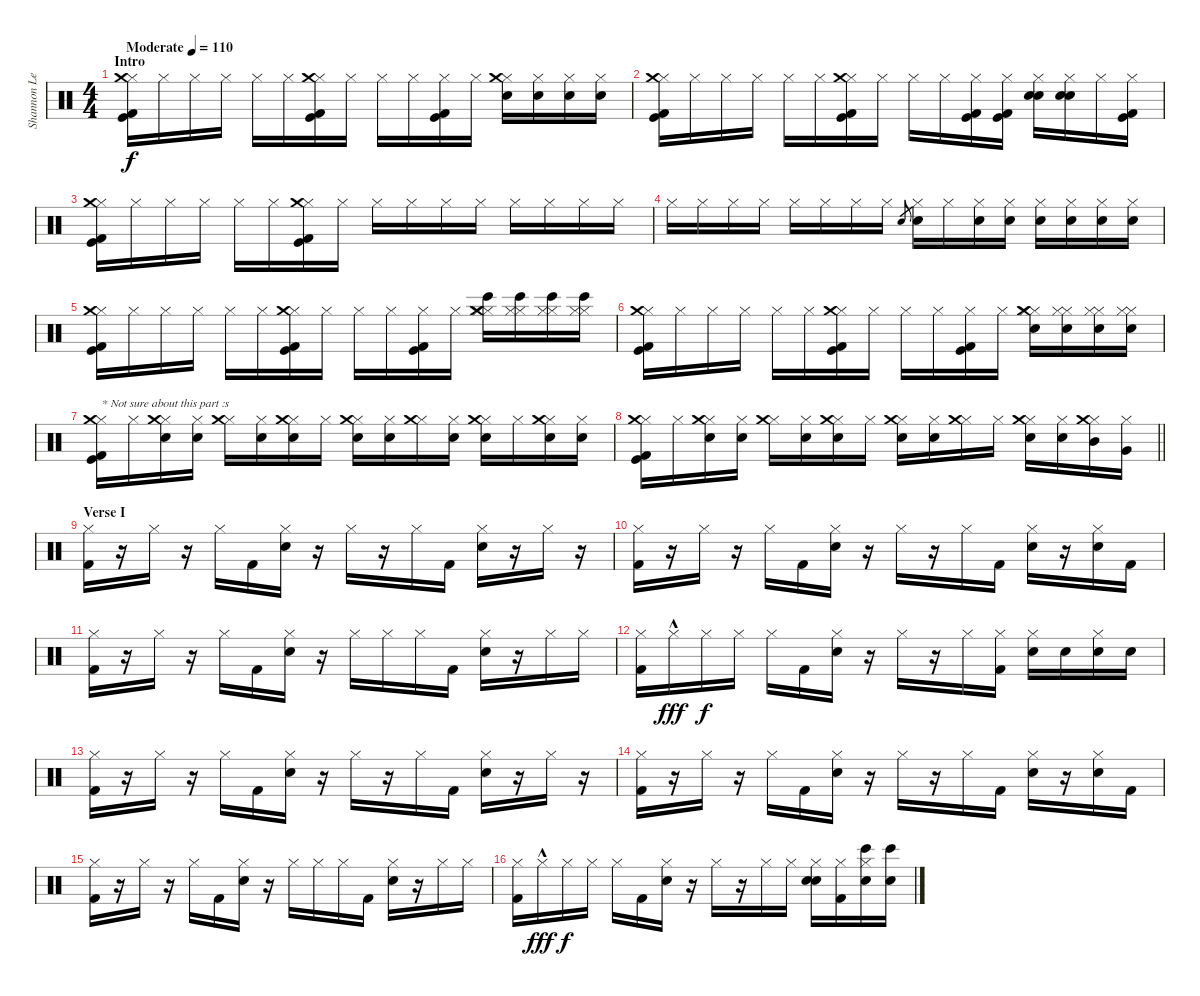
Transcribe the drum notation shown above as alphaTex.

\track ("Shannon Leto [Drums]" "Shannon Le") {instrument percussion}
\staff {score}
\articulation defaults
\ts (4 4)
\section ("" "Intro")
\tempo (110 "Moderate")
\clef neutral
\ks c
("Hi-Hat (closed)" "Crash medium (hit)" "Kick (hit)" "Kick (hit) 2").16{dy f} "Hi-Hat (closed)".16 "Hi-Hat (closed)".16 "Hi-Hat (closed)".16 "Hi-Hat (closed)".16 "Hi-Hat (closed)".16 ("Hi-Hat (closed)" "Crash medium (hit)" "Kick (hit)" "Kick (hit) 2").16 "Hi-Hat (closed)".16 "Hi-Hat (closed)".16 "Hi-Hat (closed)".16 ("Hi-Hat (closed)" "Kick (hit)" "Kick (hit) 2").16 "Hi-Hat (closed)".16 ("Hi-Hat (closed)" "Crash medium (hit)" "Hand Clap (hit)").16 ("Hi-Hat (closed)" "Hand Clap (hit)").16 ("Hi-Hat (closed)" "Hand Clap (hit)").16 ("Hi-Hat (closed)" "Hand Clap (hit)").16 |
("Hi-Hat (closed)" "Crash medium (hit)" "Kick (hit)" "Kick (hit) 2").16 "Hi-Hat (closed)".16 "Hi-Hat (closed)".16 "Hi-Hat (closed)".16 "Hi-Hat (closed)".16 "Hi-Hat (closed)".16 ("Hi-Hat (closed)" "Crash medium (hit)" "Kick (hit)" "Kick (hit) 2").16 "Hi-Hat (closed)".16 "Hi-Hat (closed)".16 "Hi-Hat (closed)".16 ("Hi-Hat (closed)" "Kick (hit)" "Kick (hit) 2").16 ("Hi-Hat (closed)" "Kick (hit)" "Kick (hit) 2").16 ("Hi-Hat (closed)" "Hand Clap (hit)" "Electric Snare (hit)").16 ("Hi-Hat (closed)" "Hand Clap (hit)" "Electric Snare (hit)").16 "Hi-Hat (closed)".16 ("Hi-Hat (closed)" "Kick (hit)" "Kick (hit) 2").16 |
("Hi-Hat (closed)" "Crash medium (hit)" "Kick (hit)" "Kick (hit) 2").16 "Hi-Hat (closed)".16 "Hi-Hat (closed)".16 "Hi-Hat (closed)".16 "Hi-Hat (closed)".16 "Hi-Hat (closed)".16 ("Hi-Hat (closed)" "Crash medium (hit)" "Kick (hit)" "Kick (hit) 2").16 "Hi-Hat (closed)".16 "Hi-Hat (closed)".16 "Hi-Hat (closed)".16 "Hi-Hat (closed)".16 "Hi-Hat (closed)".16 "Hi-Hat (closed)".16 "Hi-Hat (closed)".16 "Hi-Hat (closed)".16 "Hi-Hat (closed)".16 |
"Hi-Hat (closed)".16 "Hi-Hat (closed)".16 "Hi-Hat (closed)".16 "Hi-Hat (closed)".16 "Hi-Hat (closed)".16 "Hi-Hat (closed)".16 "Hi-Hat (closed)".16 "Hi-Hat (closed)".16 "Electric Snare (hit)".8{gr} ("Hi-Hat (closed)" "Electric Snare (hit)").16 "Hi-Hat (closed)".16 ("Hi-Hat (closed)" "Electric Snare (hit)").16 ("Hi-Hat (closed)" "Electric Snare (hit)").16 ("Hi-Hat (closed)" "Electric Snare (hit)").16 ("Hi-Hat (closed)" "Electric Snare (hit)").16 ("Hi-Hat (closed)" "Electric Snare (hit)").16 ("Hi-Hat (closed)" "Electric Snare (hit)").16 |
("Hi-Hat (closed)" "Crash medium (hit)" "Kick (hit)" "Kick (hit) 2").16 "Hi-Hat (closed)".16 "Hi-Hat (closed)".16 "Hi-Hat (closed)".16 "Hi-Hat (closed)".16 "Hi-Hat (closed)".16 ("Hi-Hat (closed)" "Crash medium (hit)" "Kick (hit)" "Kick (hit) 2").16 "Hi-Hat (closed)".16 "Hi-Hat (closed)".16 "Hi-Hat (closed)".16 ("Hi-Hat (closed)" "Kick (hit)" "Kick (hit) 2").16 "Hi-Hat (closed)".16 ("Hi-Hat (closed)" "Crash medium (hit)" "Bongo High (hit)" "Hi-Hat (closed)").16 ("Hi-Hat (closed)" "Bongo High (hit)" "Hi-Hat (closed)").16 ("Hi-Hat (closed)" "Bongo High (hit)" "Hi-Hat (closed)").16 ("Hi-Hat (closed)" "Bongo High (hit)" "Hi-Hat (closed)").16 |
("Hi-Hat (closed)" "Crash medium (hit)" "Kick (hit)" "Kick (hit) 2").16 "Hi-Hat (closed)".16 "Hi-Hat (closed)".16 "Hi-Hat (closed)".16 "Hi-Hat (closed)".16 "Hi-Hat (closed)".16 ("Hi-Hat (closed)" "Crash medium (hit)" "Kick (hit)" "Kick (hit) 2").16 "Hi-Hat (closed)".16 "Hi-Hat (closed)".16 "Hi-Hat (closed)".16 ("Hi-Hat (closed)" "Kick (hit)" "Kick (hit) 2").16 "Hi-Hat (closed)".16 ("Hi-Hat (closed)" "Crash medium (hit)" "Hand Clap (hit)" "Hi-Hat (closed)").16 ("Hi-Hat (closed)" "Hand Clap (hit)" "Hi-Hat (closed)").16 ("Hi-Hat (closed)" "Hand Clap (hit)" "Hi-Hat (closed)").16 ("Hi-Hat (closed)" "Hand Clap (hit)" "Hi-Hat (closed)").16 |
("Hi-Hat (closed)" "Crash medium (hit)" "Kick (hit)" "Kick (hit) 2").16{txt "* Not sure about this part :s"} "Hi-Hat (closed)".16 ("Hi-Hat (closed)" "Crash medium (hit)" "Electric Snare (hit)").16 ("Hi-Hat (closed)" "Electric Snare (hit)").16 ("Hi-Hat (closed)" "Crash medium (hit)").16 ("Hi-Hat (closed)" "Electric Snare (hit)").16 ("Hi-Hat (closed)" "Crash medium (hit)" "Electric Snare (hit)").16 "Hi-Hat (closed)".16 ("Hi-Hat (closed)" "Crash medium (hit)" "Electric Snare (hit)").16 ("Hi-Hat (closed)" "Electric Snare (hit)").16 ("Hi-Hat (closed)" "Crash medium (hit)").16 ("Hi-Hat (closed)" "Electric Snare (hit)").16 ("Hi-Hat (closed)" "Crash medium (hit)" "Electric Snare (hit)").16 "Hi-Hat (closed)".16 ("Hi-Hat (closed)" "Crash medium (hit)" "Electric Snare (hit)").16 ("Hi-Hat (closed)" "Electric Snare (hit)").16 |
\barLineRight lightlight
("Hi-Hat (closed)" "Crash medium (hit)" "Kick (hit)" "Kick (hit) 2").16 "Hi-Hat (closed)".16 ("Hi-Hat (closed)" "Crash medium (hit)" "Electric Snare (hit)").16 ("Hi-Hat (closed)" "Electric Snare (hit)").16 ("Hi-Hat (closed)" "Crash medium (hit)").16 ("Hi-Hat (closed)" "Electric Snare (hit)").16 ("Hi-Hat (closed)" "Crash medium (hit)" "Electric Snare (hit)").16 "Hi-Hat (closed)".16 ("Hi-Hat (closed)" "Crash medium (hit)" "Electric Snare (hit)").16 ("Hi-Hat (closed)" "Electric Snare (hit)").16 ("Hi-Hat (closed)" "Crash medium (hit)").16 "Hi-Hat (closed)".16 ("Hi-Hat (closed)" "Crash medium (hit)" "Electric Snare (hit)").16 ("Hi-Hat (closed)" "Electric Snare (hit)").16 ("Hi-Hat (closed)" "Crash medium (hit)" "Mid Tom (hit)").16 ("Hi-Hat (closed)" "Very Low Tom (hit)").16 |
\section ("" "Verse I")
("Hi-Hat (closed)" "Kick (hit) 2").16 r.16 "Hi-Hat (closed)".16 r.16 "Hi-Hat (closed)".16 "Kick (hit) 2".16 ("Hi-Hat (closed)" "Electric Snare (hit)").16 r.16 "Hi-Hat (closed)".16 r.16 "Hi-Hat (closed)".16 "Kick (hit) 2".16 ("Hi-Hat (closed)" "Electric Snare (hit)").16 r.16 "Hi-Hat (closed)".16 r.16 |
("Hi-Hat (closed)" "Kick (hit) 2").16 r.16 "Hi-Hat (closed)".16 r.16 "Hi-Hat (closed)".16 "Kick (hit) 2".16 ("Hi-Hat (closed)" "Electric Snare (hit)").16 r.16 "Hi-Hat (closed)".16 r.16 "Hi-Hat (closed)".16 "Kick (hit) 2".16 ("Hi-Hat (closed)" "Electric Snare (hit)").16 r.16 ("Hi-Hat (closed)" "Electric Snare (hit)").16 "Kick (hit) 2".16 |
("Hi-Hat (closed)" "Kick (hit) 2").16 r.16 "Hi-Hat (closed)".16 r.16 "Hi-Hat (closed)".16 "Kick (hit) 2".16 ("Hi-Hat (closed)" "Electric Snare (hit)").16 r.16 "Hi-Hat (closed)".16 "Hi-Hat (closed)".16 "Hi-Hat (closed)".16 "Kick (hit) 2".16 ("Hi-Hat (closed)" "Electric Snare (hit)").16 r.16 "Hi-Hat (closed)".16 "Hi-Hat (closed)".16 |
("Hi-Hat (closed)" "Kick (hit) 2").16 "Hi-Hat (closed)"{hac}.16{dy fff} "Hi-Hat (closed)".16{dy f} "Hi-Hat (closed)".16 "Hi-Hat (closed)".16 "Kick (hit) 2".16 ("Hi-Hat (closed)" "Electric Snare (hit)").16 r.16 "Hi-Hat (closed)".16 r.16 "Hi-Hat (closed)".16 ("Hi-Hat (closed)" "Kick (hit) 2").16 ("Hi-Hat (closed)" "Electric Snare (hit)").16 "Electric Snare (hit)".16 ("Hi-Hat (closed)" "Electric Snare (hit)").16 "Electric Snare (hit)".16 |
("Hi-Hat (closed)" "Kick (hit) 2").16 r.16 "Hi-Hat (closed)".16 r.16 "Hi-Hat (closed)".16 "Kick (hit) 2".16 ("Hi-Hat (closed)" "Electric Snare (hit)").16 r.16 "Hi-Hat (closed)".16 r.16 "Hi-Hat (closed)".16 "Kick (hit) 2".16 ("Hi-Hat (closed)" "Electric Snare (hit)").16 r.16 "Hi-Hat (closed)".16 r.16 |
("Hi-Hat (closed)" "Kick (hit) 2").16 r.16 "Hi-Hat (closed)".16 r.16 "Hi-Hat (closed)".16 "Kick (hit) 2".16 ("Hi-Hat (closed)" "Electric Snare (hit)").16 r.16 "Hi-Hat (closed)".16 r.16 "Hi-Hat (closed)".16 "Kick (hit) 2".16 ("Hi-Hat (closed)" "Electric Snare (hit)").16 r.16 ("Hi-Hat (closed)" "Electric Snare (hit)").16 "Kick (hit) 2".16 |
("Hi-Hat (closed)" "Kick (hit) 2").16 r.16 "Hi-Hat (closed)".16 r.16 "Hi-Hat (closed)".16 "Kick (hit) 2".16 ("Hi-Hat (closed)" "Electric Snare (hit)").16 r.16 "Hi-Hat (closed)".16 "Hi-Hat (closed)".16 "Hi-Hat (closed)".16 "Kick (hit) 2".16 ("Hi-Hat (closed)" "Electric Snare (hit)").16 r.16 "Hi-Hat (closed)".16 "Hi-Hat (closed)".16 |
("Hi-Hat (closed)" "Kick (hit) 2").16 "Hi-Hat (closed)"{hac}.16{dy fff} "Hi-Hat (closed)".16{dy f} "Hi-Hat (closed)".16 "Hi-Hat (closed)".16 "Kick (hit) 2".16 ("Hi-Hat (closed)" "Electric Snare (hit)").16 r.16 "Hi-Hat (closed)".16 r.16 "Hi-Hat (closed)".16 "Hi-Hat (closed)".16 ("Hi-Hat (closed)" "Hand Clap (hit)" "Electric Snare (hit)").16 ("Hi-Hat (closed)" "Kick (hit) 2").16 ("Hi-Hat (closed)" "Hand Clap (hit)" "Bongo High (hit)").16 ("Hand Clap (hit)" "Bongo High (hit)").16
